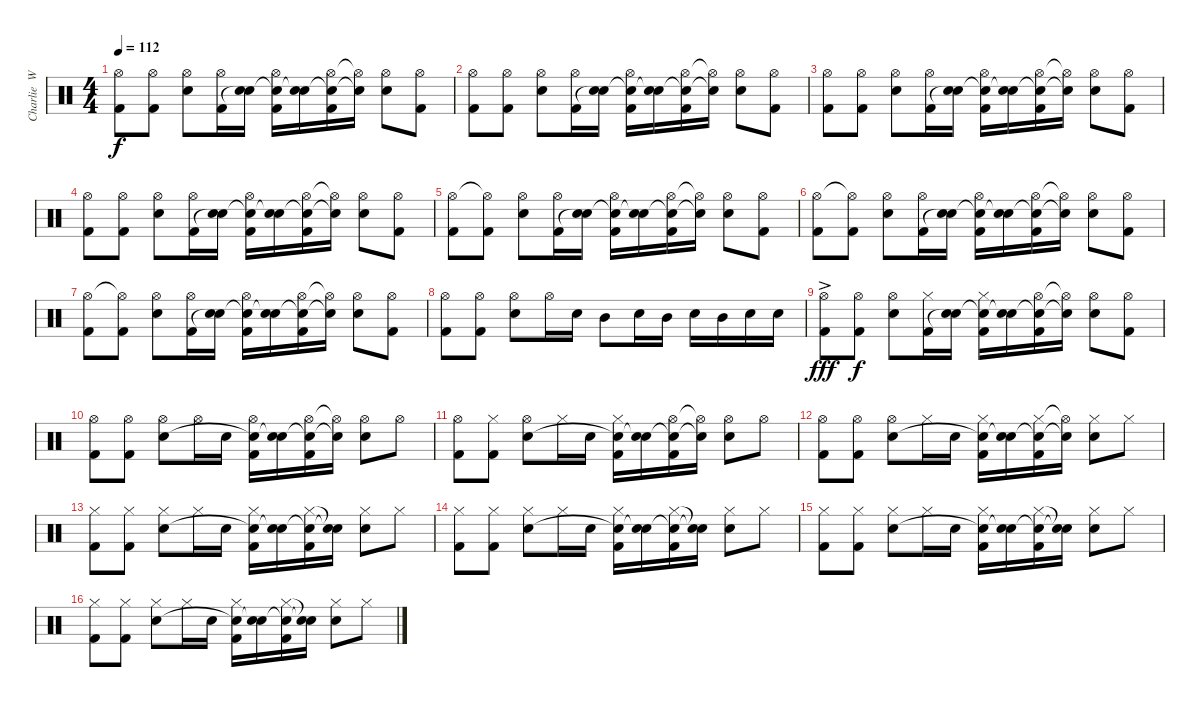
\track ("Charlie  Watts" "Charlie  W") {instrument percussion}
\staff {score}
\articulation defaults
\ts (4 4)
\tempo 112
\clef neutral
\ks c
("Hi-Hat (open)" "Kick (hit) 2").8{dy f} ("Hi-Hat (open)" "Kick (hit) 2").8 ("Hi-Hat (open)" "Snare (hit) 2").8 ("Hi-Hat (open)" "Kick (hit) 2").16 ("Snare (hit) 2" "Snare (hit)"{t}).16 ("Hi-Hat (open)" "Snare (hit)"{t} "Kick (hit) 2").16 ("Snare (hit) 2" "Snare (hit)"{t}).16 ("Hi-Hat (open)" "Snare (hit)"{t} "Kick (hit) 2").16 ("Hi-Hat (open)"{t} "Snare (hit)"{t}).16 ("Hi-Hat (open)" "Snare (hit) 2").8 ("Hi-Hat (open)" "Kick (hit) 2").8 |
("Hi-Hat (open)" "Kick (hit) 2").8 ("Hi-Hat (open)" "Kick (hit) 2").8 ("Hi-Hat (open)" "Snare (hit) 2").8 ("Hi-Hat (open)" "Kick (hit) 2").16 ("Snare (hit) 2" "Snare (hit)"{t}).16 ("Hi-Hat (open)" "Snare (hit)"{t} "Kick (hit) 2").16 ("Snare (hit) 2" "Snare (hit)"{t}).16 ("Hi-Hat (open)" "Snare (hit)"{t} "Kick (hit) 2").16 ("Hi-Hat (open)"{t} "Snare (hit)"{t}).16 ("Hi-Hat (open)" "Snare (hit) 2").8 ("Hi-Hat (open)" "Kick (hit) 2").8 |
("Hi-Hat (open)" "Kick (hit) 2").8 ("Hi-Hat (open)" "Kick (hit) 2").8 ("Hi-Hat (open)" "Snare (hit) 2").8 ("Hi-Hat (open)" "Kick (hit) 2").16 ("Snare (hit) 2" "Snare (hit)"{t}).16 ("Hi-Hat (open)" "Snare (hit)"{t} "Kick (hit) 2").16 ("Snare (hit) 2" "Snare (hit)"{t}).16 ("Hi-Hat (open)" "Snare (hit)"{t} "Kick (hit) 2").16 ("Hi-Hat (open)"{t} "Snare (hit)"{t}).16 ("Hi-Hat (open)" "Snare (hit) 2").8 ("Hi-Hat (open)" "Kick (hit) 2").8 |
("Hi-Hat (open)" "Kick (hit) 2").8 ("Hi-Hat (open)" "Kick (hit) 2").8 ("Hi-Hat (open)" "Snare (hit) 2").8 ("Hi-Hat (open)" "Kick (hit) 2").16 ("Snare (hit) 2" "Snare (hit)"{t}).16 ("Hi-Hat (open)" "Snare (hit)"{t} "Kick (hit) 2").16 ("Snare (hit) 2" "Snare (hit)"{t}).16 ("Hi-Hat (open)" "Snare (hit)"{t} "Kick (hit) 2").16 ("Hi-Hat (open)"{t} "Snare (hit)"{t}).16 ("Hi-Hat (open)" "Snare (hit) 2").8 ("Hi-Hat (open)" "Kick (hit) 2").8 |
("Hi-Hat (open)" "Kick (hit) 2").8 ("Hi-Hat (open)"{t} "Kick (hit) 2").8 ("Hi-Hat (open)" "Snare (hit) 2").8 ("Hi-Hat (open)" "Kick (hit) 2").16 ("Snare (hit) 2" "Snare (hit)"{t}).16 ("Hi-Hat (open)" "Snare (hit)"{t} "Kick (hit) 2").16 ("Snare (hit) 2" "Snare (hit)"{t}).16 ("Hi-Hat (open)" "Snare (hit)"{t} "Kick (hit) 2").16 ("Hi-Hat (open)"{t} "Snare (hit)"{t}).16 ("Hi-Hat (open)" "Snare (hit) 2").8 ("Hi-Hat (open)" "Kick (hit) 2").8 |
("Hi-Hat (open)" "Kick (hit) 2").8 ("Hi-Hat (open)"{t} "Kick (hit) 2").8 ("Hi-Hat (open)" "Snare (hit) 2").8 ("Hi-Hat (open)" "Kick (hit) 2").16 ("Snare (hit) 2" "Snare (hit)"{t}).16 ("Hi-Hat (open)" "Snare (hit)"{t} "Kick (hit) 2").16 ("Snare (hit) 2" "Snare (hit)"{t}).16 ("Hi-Hat (open)" "Snare (hit)"{t} "Kick (hit) 2").16 ("Hi-Hat (open)"{t} "Snare (hit)"{t}).16 ("Hi-Hat (open)" "Snare (hit) 2").8 ("Hi-Hat (open)" "Kick (hit) 2").8 |
("Hi-Hat (open)" "Kick (hit) 2").8 ("Hi-Hat (open)"{t} "Kick (hit) 2").8 ("Hi-Hat (open)" "Snare (hit) 2").8 ("Hi-Hat (open)" "Kick (hit) 2").16 ("Snare (hit) 2" "Snare (hit)"{t}).16 ("Hi-Hat (open)" "Snare (hit)"{t} "Kick (hit) 2").16 ("Snare (hit) 2" "Snare (hit)"{t}).16 ("Hi-Hat (open)" "Snare (hit)"{t} "Kick (hit) 2").16 ("Hi-Hat (open)"{t} "Snare (hit)"{t}).16 ("Hi-Hat (open)" "Snare (hit) 2").8 ("Hi-Hat (open)" "Kick (hit) 2").8 |
("Hi-Hat (open)" "Kick (hit) 2").8 ("Hi-Hat (open)" "Kick (hit) 2").8 ("Hi-Hat (open)" "Snare (hit) 2").8 "Hi-Hat (open)".16 "Snare (hit) 2".16 "Mid Tom (hit)".8 "Snare (hit) 2".16 "Mid Tom (hit)".16 "Snare (hit) 2".16 "Mid Tom (hit)".16 "Snare (hit) 2".16 "Snare (hit) 2".16 |
("Hi-Hat (open)"{ac} "Kick (hit) 2"{ac}).8{dy fff} ("Hi-Hat (open)" "Kick (hit) 2").8{dy f} ("Hi-Hat (open)" "Snare (hit) 2").8 ("Hi-Hat (closed)" "Kick (hit) 2").16 ("Snare (hit) 2" "Snare (hit)"{t}).16 ("Hi-Hat (closed)" "Snare (hit)"{t} "Kick (hit) 2").16 ("Snare (hit) 2" "Snare (hit)"{t}).16 ("Hi-Hat (open)" "Snare (hit)"{t} "Kick (hit) 2").16 ("Hi-Hat (open)"{t} "Snare (hit)"{t}).16 ("Hi-Hat (open)" "Snare (hit) 2").8 ("Hi-Hat (open)" "Kick (hit) 2").8 |
("Hi-Hat (open)" "Kick (hit) 2").8 ("Hi-Hat (open)" "Kick (hit) 2").8 ("Hi-Hat (open)" "Snare (hit) 2").8 "Hi-Hat (open)".16 "Snare (hit) 2".16 ("Hi-Hat (open)" "Snare (hit)"{t} "Kick (hit) 2").16 ("Snare (hit) 2" "Snare (hit)"{t}).16 ("Hi-Hat (open)" "Snare (hit)"{t} "Kick (hit) 2").16 ("Hi-Hat (open)"{t} "Snare (hit)"{t}).16 ("Hi-Hat (open)" "Snare (hit) 2").8 "Hi-Hat (open)".8 |
("Hi-Hat (open)" "Kick (hit) 2").8 ("Hi-Hat (closed)" "Kick (hit) 2").8 ("Hi-Hat (open)" "Snare (hit) 2").8 "Hi-Hat (closed)".16 "Snare (hit) 2".16 ("Hi-Hat (closed)" "Snare (hit)"{t} "Kick (hit) 2").16 ("Snare (hit) 2" "Snare (hit)"{t}).16 ("Hi-Hat (open)" "Snare (hit)"{t} "Kick (hit) 2").16 ("Hi-Hat (open)"{t} "Snare (hit)"{t}).16 ("Hi-Hat (open)" "Snare (hit) 2").8 "Hi-Hat (open)".8 |
("Hi-Hat (open)" "Kick (hit) 2").8 ("Hi-Hat (open)" "Kick (hit) 2").8 ("Hi-Hat (open)" "Snare (hit) 2").8 "Hi-Hat (closed)".16 "Snare (hit) 2".16 ("Hi-Hat (closed)" "Snare (hit)"{t} "Kick (hit) 2").16 ("Snare (hit) 2" "Snare (hit)"{t}).16 ("Hi-Hat (closed)" "Snare (hit)"{t} "Kick (hit) 2").16 ("Hi-Hat (open)"{t} "Snare (hit)"{t}).16 ("Hi-Hat (closed)" "Snare (hit) 2").8 "Hi-Hat (closed)".8 |
("Hi-Hat (closed)" "Kick (hit) 2").8 ("Hi-Hat (closed)" "Kick (hit) 2").8 ("Hi-Hat (closed)" "Snare (hit) 2").8 "Hi-Hat (closed)".16 "Snare (hit) 2".16 ("Hi-Hat (closed)" "Snare (hit)"{t} "Kick (hit) 2").16 ("Snare (hit) 2" "Snare (hit)"{t}).16 ("Hi-Hat (closed)" "Snare (hit)"{t} "Kick (hit) 2").16 ("Snare (hit)"{t} "Snare (hit)"{t}).16 ("Hi-Hat (closed)" "Snare (hit) 2").8 "Hi-Hat (closed)".8 |
("Hi-Hat (closed)" "Kick (hit) 2").8 ("Hi-Hat (closed)" "Kick (hit) 2").8 ("Hi-Hat (closed)" "Snare (hit) 2").8 "Hi-Hat (closed)".16 "Snare (hit) 2".16 ("Hi-Hat (closed)" "Snare (hit)"{t} "Kick (hit) 2").16 ("Snare (hit) 2" "Snare (hit)"{t}).16 ("Hi-Hat (closed)" "Snare (hit)"{t} "Kick (hit) 2").16 ("Snare (hit)"{t} "Snare (hit)"{t}).16 ("Hi-Hat (closed)" "Snare (hit) 2").8 "Hi-Hat (closed)".8 |
("Hi-Hat (closed)" "Kick (hit) 2").8 ("Hi-Hat (closed)" "Kick (hit) 2").8 ("Hi-Hat (closed)" "Snare (hit) 2").8 "Hi-Hat (closed)".16 "Snare (hit) 2".16 ("Hi-Hat (closed)" "Snare (hit)"{t} "Kick (hit) 2").16 ("Snare (hit) 2" "Snare (hit)"{t}).16 ("Hi-Hat (closed)" "Snare (hit)"{t} "Kick (hit) 2").16 ("Snare (hit)"{t} "Snare (hit)"{t}).16 ("Hi-Hat (closed)" "Snare (hit) 2").8 "Hi-Hat (closed)".8 |
("Hi-Hat (closed)" "Kick (hit) 2").8 ("Hi-Hat (closed)" "Kick (hit) 2").8 ("Hi-Hat (closed)" "Snare (hit) 2").8 "Hi-Hat (closed)".16 "Snare (hit) 2".16 ("Hi-Hat (closed)" "Snare (hit)"{t} "Kick (hit) 2").16 ("Snare (hit) 2" "Snare (hit)"{t}).16 ("Hi-Hat (closed)" "Snare (hit)"{t} "Kick (hit) 2").16 ("Snare (hit)"{t} "Snare (hit)"{t}).16 ("Hi-Hat (closed)" "Snare (hit) 2").8 "Hi-Hat (closed)".8
